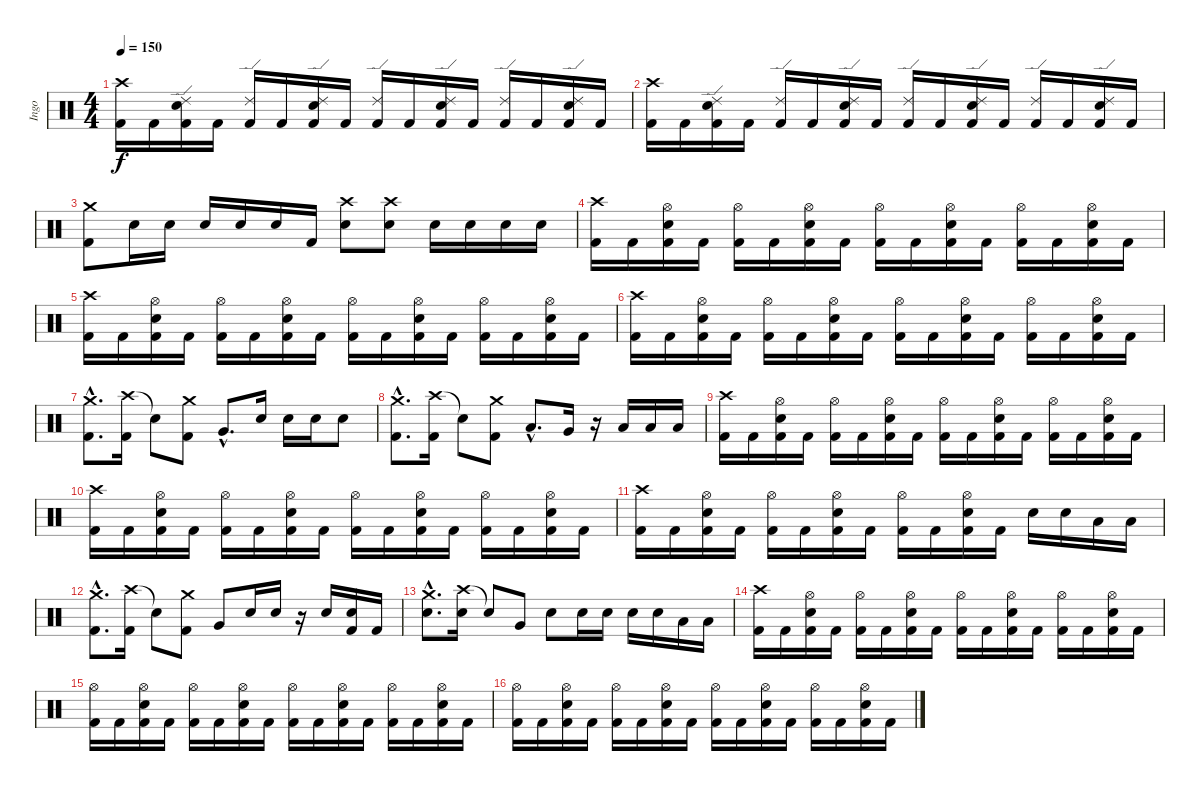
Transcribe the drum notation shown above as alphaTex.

\track ("Ingo" "Ingo") {instrument percussion}
\staff {score}
\articulation defaults
\ts (4 4)
\tempo 150
\clef neutral
\ks c
("Crash high (hit)" "Kick (hit) 2").16{dy f} "Kick (hit) 2".16 ("Ride (edge) 2" "Electric Snare (hit)" "Kick (hit) 2").16 "Kick (hit) 2".16 ("Ride (edge) 2" "Kick (hit) 2").16 "Kick (hit) 2".16 ("Ride (edge) 2" "Electric Snare (hit)" "Kick (hit) 2").16 "Kick (hit) 2".16 ("Ride (edge) 2" "Kick (hit) 2").16 "Kick (hit) 2".16 ("Ride (edge) 2" "Electric Snare (hit)" "Kick (hit) 2").16 "Kick (hit) 2".16 ("Ride (edge) 2" "Kick (hit) 2").16 "Kick (hit) 2".16 ("Ride (edge) 2" "Electric Snare (hit)" "Kick (hit) 2").16 "Kick (hit) 2".16 |
("Crash high (hit)" "Kick (hit) 2").16 "Kick (hit) 2".16 ("Ride (edge) 2" "Electric Snare (hit)" "Kick (hit) 2").16 "Kick (hit) 2".16 ("Ride (edge) 2" "Kick (hit) 2").16 "Kick (hit) 2".16 ("Ride (edge) 2" "Electric Snare (hit)" "Kick (hit) 2").16 "Kick (hit) 2".16 ("Ride (edge) 2" "Kick (hit) 2").16 "Kick (hit) 2".16 ("Ride (edge) 2" "Electric Snare (hit)" "Kick (hit) 2").16 "Kick (hit) 2".16 ("Ride (edge) 2" "Kick (hit) 2").16 "Kick (hit) 2".16 ("Ride (edge) 2" "Electric Snare (hit)" "Kick (hit) 2").16 "Kick (hit) 2".16 |
("Crash medium (hit)" "Kick (hit) 2").8 "Electric Snare (hit)".16 "Electric Snare (hit)".16 "Electric Snare (hit)".16 "Electric Snare (hit)".16 "Electric Snare (hit)".16 "Kick (hit) 2".16 ("Crash high (hit)" "Electric Snare (hit)").8 ("Crash high (hit)" "Electric Snare (hit)").8 "Electric Snare (hit)".16 "Electric Snare (hit)".16 "Electric Snare (hit)".16 "Electric Snare (hit)".16 |
("Crash high (hit)" "Kick (hit) 2").16 "Kick (hit) 2".16 ("Hi-Hat (open)" "Electric Snare (hit)" "Kick (hit) 2").16 "Kick (hit) 2".16 ("Hi-Hat (open)" "Kick (hit) 2").16 "Kick (hit) 2".16 ("Hi-Hat (open)" "Electric Snare (hit)" "Kick (hit) 2").16 "Kick (hit) 2".16 ("Hi-Hat (open)" "Kick (hit) 2").16 "Kick (hit) 2".16 ("Hi-Hat (open)" "Electric Snare (hit)" "Kick (hit) 2").16 "Kick (hit) 2".16 ("Hi-Hat (open)" "Kick (hit) 2").16 "Kick (hit) 2".16 ("Hi-Hat (open)" "Electric Snare (hit)" "Kick (hit) 2").16 "Kick (hit) 2".16 |
("Crash high (hit)" "Kick (hit) 2").16 "Kick (hit) 2".16 ("Hi-Hat (open)" "Electric Snare (hit)" "Kick (hit) 2").16 "Kick (hit) 2".16 ("Hi-Hat (open)" "Kick (hit) 2").16 "Kick (hit) 2".16 ("Hi-Hat (open)" "Electric Snare (hit)" "Kick (hit) 2").16 "Kick (hit) 2".16 ("Hi-Hat (open)" "Kick (hit) 2").16 "Kick (hit) 2".16 ("Hi-Hat (open)" "Electric Snare (hit)" "Kick (hit) 2").16 "Kick (hit) 2".16 ("Hi-Hat (open)" "Kick (hit) 2").16 "Kick (hit) 2".16 ("Hi-Hat (open)" "Electric Snare (hit)" "Kick (hit) 2").16 "Kick (hit) 2".16 |
("Crash high (hit)" "Kick (hit) 2").16 "Kick (hit) 2".16 ("Hi-Hat (open)" "Electric Snare (hit)" "Kick (hit) 2").16 "Kick (hit) 2".16 ("Hi-Hat (open)" "Kick (hit) 2").16 "Kick (hit) 2".16 ("Hi-Hat (open)" "Electric Snare (hit)" "Kick (hit) 2").16 "Kick (hit) 2".16 ("Hi-Hat (open)" "Kick (hit) 2").16 "Kick (hit) 2".16 ("Hi-Hat (open)" "Electric Snare (hit)" "Kick (hit) 2").16 "Kick (hit) 2".16 ("Hi-Hat (open)" "Kick (hit) 2").16 "Kick (hit) 2".16 ("Hi-Hat (open)" "Electric Snare (hit)" "Kick (hit) 2").16 "Kick (hit) 2".16 |
("Crash medium (hit)"{hac} "Kick (hit) 2"{hac}).8{d} ("Crash high (hit)" "Kick (hit) 2").16 "Snare (hit)"{t}.8 ("Crash medium (hit)" "Kick (hit) 2").8 "Very Low Tom (hit)"{hac}.8{d} "Electric Snare (hit)".16 "Electric Snare (hit)".16 "Electric Snare (hit)".16 "Electric Snare (hit)".8 |
("Crash medium (hit)"{hac} "Kick (hit) 2"{hac}).8{d} ("Crash high (hit)" "Kick (hit) 2").16 "Snare (hit)"{t}.8 ("Crash medium (hit)" "Kick (hit) 2").8 "Low Tom (hit)"{hac}.8{d} "Very Low Tom (hit)".16 r.16 "Low Floor Tom (hit)".16 "Low Floor Tom (hit)".16 "Low Floor Tom (hit)".16 |
("Crash high (hit)" "Kick (hit) 2").16 "Kick (hit) 2".16 ("Hi-Hat (open)" "Electric Snare (hit)" "Kick (hit) 2").16 "Kick (hit) 2".16 ("Hi-Hat (open)" "Kick (hit) 2").16 "Kick (hit) 2".16 ("Hi-Hat (open)" "Electric Snare (hit)" "Kick (hit) 2").16 "Kick (hit) 2".16 ("Hi-Hat (open)" "Kick (hit) 2").16 "Kick (hit) 2".16 ("Hi-Hat (open)" "Electric Snare (hit)" "Kick (hit) 2").16 "Kick (hit) 2".16 ("Hi-Hat (open)" "Kick (hit) 2").16 "Kick (hit) 2".16 ("Hi-Hat (open)" "Electric Snare (hit)" "Kick (hit) 2").16 "Kick (hit) 2".16 |
("Crash high (hit)" "Kick (hit) 2").16 "Kick (hit) 2".16 ("Hi-Hat (open)" "Electric Snare (hit)" "Kick (hit) 2").16 "Kick (hit) 2".16 ("Hi-Hat (open)" "Kick (hit) 2").16 "Kick (hit) 2".16 ("Hi-Hat (open)" "Electric Snare (hit)" "Kick (hit) 2").16 "Kick (hit) 2".16 ("Hi-Hat (open)" "Kick (hit) 2").16 "Kick (hit) 2".16 ("Hi-Hat (open)" "Electric Snare (hit)" "Kick (hit) 2").16 "Kick (hit) 2".16 ("Hi-Hat (open)" "Kick (hit) 2").16 "Kick (hit) 2".16 ("Hi-Hat (open)" "Electric Snare (hit)" "Kick (hit) 2").16 "Kick (hit) 2".16 |
("Crash high (hit)" "Kick (hit) 2").16 "Kick (hit) 2".16 ("Hi-Hat (open)" "Electric Snare (hit)" "Kick (hit) 2").16 "Kick (hit) 2".16 ("Hi-Hat (open)" "Kick (hit) 2").16 "Kick (hit) 2".16 ("Hi-Hat (open)" "Electric Snare (hit)" "Kick (hit) 2").16 "Kick (hit) 2".16 ("Hi-Hat (open)" "Kick (hit) 2").16 "Kick (hit) 2".16 ("Hi-Hat (open)" "Electric Snare (hit)" "Kick (hit) 2").16 "Kick (hit) 2".16 "Electric Snare (hit)".16 "Electric Snare (hit)".16 "Low Tom (hit)".16 "Low Tom (hit)".16 |
("Crash medium (hit)"{hac} "Kick (hit) 2"{hac}).8{d} ("Crash high (hit)" "Kick (hit) 2").16 "Snare (hit)"{t}.8 ("Crash medium (hit)" "Kick (hit) 2").8 "Very Low Tom (hit)".8 "Electric Snare (hit)".16 "Electric Snare (hit)".16 r.16 "Electric Snare (hit)".16 ("Electric Snare (hit)" "Kick (hit) 2").16 "Kick (hit) 2".16 |
("Crash medium (hit)"{hac} "Electric Snare (hit)"{hac}).8{d} ("Crash high (hit)" "Electric Snare (hit)").16 "Snare (hit)"{t}.8 "Very Low Tom (hit)".8 "Electric Snare (hit)".8 "Electric Snare (hit)".16 "Electric Snare (hit)".16 "Electric Snare (hit)".16 "Electric Snare (hit)".16 "Low Floor Tom (hit)".16 "Low Floor Tom (hit)".16 |
("Crash high (hit)" "Kick (hit) 2").16 "Kick (hit) 2".16 ("Hi-Hat (open)" "Electric Snare (hit)" "Kick (hit) 2").16 "Kick (hit) 2".16 ("Hi-Hat (open)" "Kick (hit) 2").16 "Kick (hit) 2".16 ("Hi-Hat (open)" "Electric Snare (hit)" "Kick (hit) 2").16 "Kick (hit) 2".16 ("Hi-Hat (open)" "Kick (hit) 2").16 "Kick (hit) 2".16 ("Hi-Hat (open)" "Electric Snare (hit)" "Kick (hit) 2").16 "Kick (hit) 2".16 ("Hi-Hat (open)" "Kick (hit) 2").16 "Kick (hit) 2".16 ("Hi-Hat (open)" "Electric Snare (hit)" "Kick (hit) 2").16 "Kick (hit) 2".16 |
("Hi-Hat (open)" "Kick (hit) 2").16 "Kick (hit) 2".16 ("Hi-Hat (open)" "Electric Snare (hit)" "Kick (hit) 2").16 "Kick (hit) 2".16 ("Hi-Hat (open)" "Kick (hit) 2").16 "Kick (hit) 2".16 ("Hi-Hat (open)" "Electric Snare (hit)" "Kick (hit) 2").16 "Kick (hit) 2".16 ("Hi-Hat (open)" "Kick (hit) 2").16 "Kick (hit) 2".16 ("Hi-Hat (open)" "Electric Snare (hit)" "Kick (hit) 2").16 "Kick (hit) 2".16 ("Hi-Hat (open)" "Kick (hit) 2").16 "Kick (hit) 2".16 ("Hi-Hat (open)" "Electric Snare (hit)" "Kick (hit) 2").16 "Kick (hit) 2".16 |
("Hi-Hat (open)" "Kick (hit) 2").16 "Kick (hit) 2".16 ("Hi-Hat (open)" "Electric Snare (hit)" "Kick (hit) 2").16 "Kick (hit) 2".16 ("Hi-Hat (open)" "Kick (hit) 2").16 "Kick (hit) 2".16 ("Hi-Hat (open)" "Electric Snare (hit)" "Kick (hit) 2").16 "Kick (hit) 2".16 ("Hi-Hat (open)" "Kick (hit) 2").16 "Kick (hit) 2".16 ("Hi-Hat (open)" "Electric Snare (hit)" "Kick (hit) 2").16 "Kick (hit) 2".16 ("Hi-Hat (open)" "Kick (hit) 2").16 "Kick (hit) 2".16 ("Hi-Hat (open)" "Electric Snare (hit)" "Kick (hit) 2").16 "Kick (hit) 2".16
